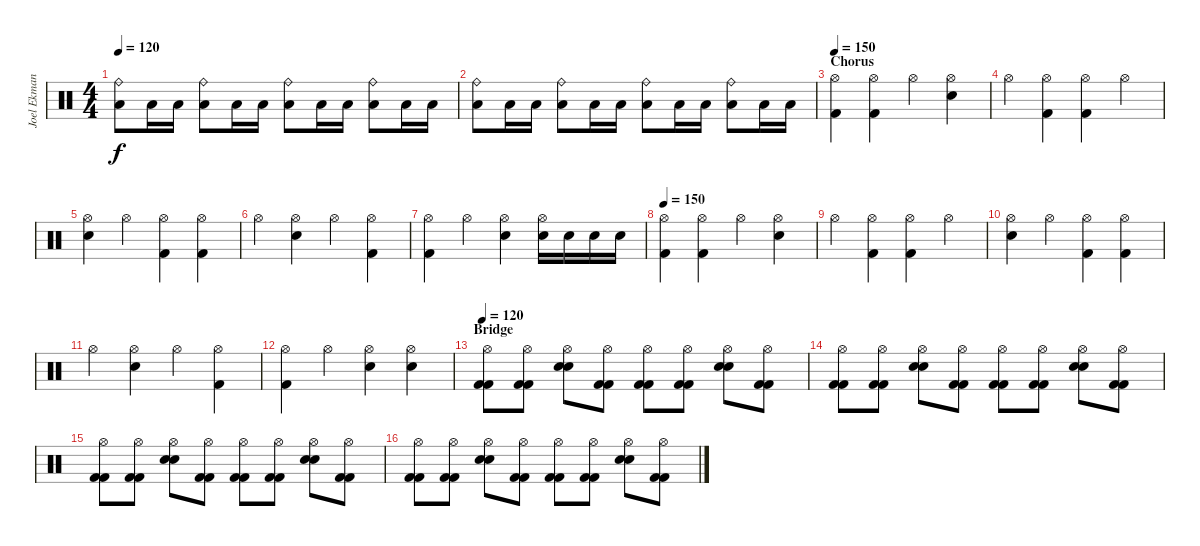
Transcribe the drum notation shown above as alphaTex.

\track ("Joel Ekman" "Joel Ekman") {instrument percussion}
\staff {score}
\articulation defaults
\ts (4 4)
\tempo 120
\clef neutral
\ks c
("Low Floor Tom (hit)" "Ride (bell)").8{dy f} "Low Tom (hit)".16 "Low Tom (hit)".16 ("Low Floor Tom (hit)" "Ride (bell)").8 "Low Tom (hit)".16 "Low Tom (hit)".16 ("Low Floor Tom (hit)" "Ride (bell)").8 "Low Tom (hit)".16 "Low Tom (hit)".16 ("Low Floor Tom (hit)" "Ride (bell)").8 "Low Tom (hit)".16 "Low Tom (hit)".16 |
("Low Floor Tom (hit)" "Ride (bell)").8 "Low Tom (hit)".16 "Low Tom (hit)".16 ("Low Floor Tom (hit)" "Ride (bell)").8 "Low Tom (hit)".16 "Low Tom (hit)".16 ("Low Floor Tom (hit)" "Ride (bell)").8 "Low Tom (hit)".16 "Low Tom (hit)".16 ("Low Floor Tom (hit)" "Ride (bell)").8 "Low Tom (hit)".16 "Low Tom (hit)".16 |
\section ("" "Chorus")
\tempo 150
("Hi-Hat (open)" "Kick (hit) 2").4 ("Hi-Hat (open)" "Kick (hit) 2").4 "Hi-Hat (open)".4 ("Hi-Hat (open)" "Electric Snare (hit)").4 |
"Hi-Hat (open)".4 ("Hi-Hat (open)" "Kick (hit) 2").4 ("Hi-Hat (open)" "Kick (hit) 2").4 "Hi-Hat (open)".4 |
("Hi-Hat (open)" "Electric Snare (hit)").4 "Hi-Hat (open)".4 ("Hi-Hat (open)" "Kick (hit) 2").4 ("Hi-Hat (open)" "Kick (hit) 2").4 |
"Hi-Hat (open)".4 ("Hi-Hat (open)" "Electric Snare (hit)").4 "Hi-Hat (open)".4 ("Hi-Hat (open)" "Kick (hit) 2").4 |
("Hi-Hat (open)" "Kick (hit) 2").4 "Hi-Hat (open)".4 ("Hi-Hat (open)" "Electric Snare (hit)").4 ("Hi-Hat (open)" "Electric Snare (hit)").16 "Electric Snare (hit)".16 "Electric Snare (hit)".16 "Electric Snare (hit)".16 |
\tempo 150
("Hi-Hat (open)" "Kick (hit) 2").4 ("Hi-Hat (open)" "Kick (hit) 2").4 "Hi-Hat (open)".4 ("Hi-Hat (open)" "Electric Snare (hit)").4 |
"Hi-Hat (open)".4 ("Hi-Hat (open)" "Kick (hit) 2").4 ("Hi-Hat (open)" "Kick (hit) 2").4 "Hi-Hat (open)".4 |
("Hi-Hat (open)" "Electric Snare (hit)").4 "Hi-Hat (open)".4 ("Hi-Hat (open)" "Kick (hit) 2").4 ("Hi-Hat (open)" "Kick (hit) 2").4 |
"Hi-Hat (open)".4 ("Hi-Hat (open)" "Electric Snare (hit)").4 "Hi-Hat (open)".4 ("Hi-Hat (open)" "Kick (hit) 2").4 |
("Hi-Hat (open)" "Kick (hit) 2").4 "Hi-Hat (open)".4 ("Hi-Hat (open)" "Electric Snare (hit)").4 ("Hi-Hat (open)" "Electric Snare (hit)").4 |
\section ("" "Bridge")
\tempo 120
("Hi-Hat (open)" "Kick (hit) 2" "Kick (hit) 2").8 ("Hi-Hat (open)" "Kick (hit) 2" "Kick (hit) 2").8 ("Hi-Hat (open)" "Electric Snare (hit)" "Electric Snare (hit)").8 ("Hi-Hat (open)" "Kick (hit) 2" "Kick (hit) 2").8 ("Hi-Hat (open)" "Kick (hit) 2" "Kick (hit) 2").8 ("Hi-Hat (open)" "Kick (hit) 2" "Kick (hit) 2").8 ("Hi-Hat (open)" "Electric Snare (hit)" "Electric Snare (hit)").8 ("Hi-Hat (open)" "Kick (hit) 2" "Kick (hit) 2").8 |
("Hi-Hat (open)" "Kick (hit) 2" "Kick (hit) 2").8 ("Hi-Hat (open)" "Kick (hit) 2" "Kick (hit) 2").8 ("Hi-Hat (open)" "Electric Snare (hit)" "Electric Snare (hit)").8 ("Hi-Hat (open)" "Kick (hit) 2" "Kick (hit) 2").8 ("Hi-Hat (open)" "Kick (hit) 2" "Kick (hit) 2").8 ("Hi-Hat (open)" "Kick (hit) 2" "Kick (hit) 2").8 ("Hi-Hat (open)" "Electric Snare (hit)" "Electric Snare (hit)").8 ("Hi-Hat (open)" "Kick (hit) 2" "Kick (hit) 2").8 |
("Hi-Hat (open)" "Kick (hit) 2" "Kick (hit) 2").8 ("Hi-Hat (open)" "Kick (hit) 2" "Kick (hit) 2").8 ("Hi-Hat (open)" "Electric Snare (hit)" "Electric Snare (hit)").8 ("Hi-Hat (open)" "Kick (hit) 2" "Kick (hit) 2").8 ("Hi-Hat (open)" "Kick (hit) 2" "Kick (hit) 2").8 ("Hi-Hat (open)" "Kick (hit) 2" "Kick (hit) 2").8 ("Hi-Hat (open)" "Electric Snare (hit)" "Electric Snare (hit)").8 ("Hi-Hat (open)" "Kick (hit) 2" "Kick (hit) 2").8 |
("Hi-Hat (open)" "Kick (hit) 2" "Kick (hit) 2").8 ("Hi-Hat (open)" "Kick (hit) 2" "Kick (hit) 2").8 ("Hi-Hat (open)" "Electric Snare (hit)" "Electric Snare (hit)").8 ("Hi-Hat (open)" "Kick (hit) 2" "Kick (hit) 2").8 ("Hi-Hat (open)" "Kick (hit) 2" "Kick (hit) 2").8 ("Hi-Hat (open)" "Kick (hit) 2" "Kick (hit) 2").8 ("Hi-Hat (open)" "Electric Snare (hit)" "Electric Snare (hit)").8 ("Hi-Hat (open)" "Kick (hit) 2" "Kick (hit) 2").8
